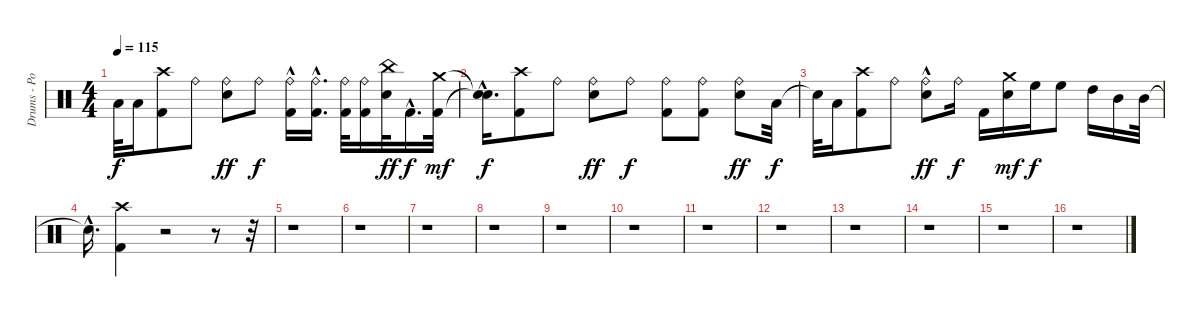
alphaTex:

\track ("Drums - Portnoy" "Drums - Po") {instrument percussion}
\staff {score}
\articulation defaults
\ts (4 4)
\tempo 115
\clef neutral
\ks c "Low Floor Tom (hit)".32{dy f} "Low Floor Tom (hit)".16
("Kick (hit) 2" "Crash high (hit)").8 "Ride (bell)".8 ("Ride (bell)" "Electric Snare (hit)").8{dy ff} "Ride (bell)".8{dy f} ("Kick (hit) 2"{hac} "Ride (bell)"{hac}).16 ("Kick (hit) 2"{hac} "Ride (bell)"{hac}).16{d} ("Kick (hit) 2" "Ride (bell)").32 ("Kick (hit) 2" "Ride (bell)").16 ("Electric Snare (hit)" "China (hit)").32{dy ff} "Kick (hit) 2"{hac}.16{d dy f} ("Kick (hit) 2" "Crash medium (hit)").32{dy mf} |
("Snare (hit)"{hac t} "Snare (hit)"{hac t}).16{d dy f} ("Kick (hit) 2" "Crash high (hit)").8 "Ride (bell)".8 ("Ride (bell)" "Electric Snare (hit)").8{dy ff} "Ride (bell)".8{dy f} ("Kick (hit) 2" "Ride (bell)").8 ("Kick (hit) 2" "Ride (bell)").8 ("Ride (bell)" "Electric Snare (hit)").8{dy ff} "Low Floor Tom (hit)".32{dy f} |
"Snare (hit)"{t}.32 "Low Floor Tom (hit)".16 ("Kick (hit) 2" "Crash high (hit)").8 "Ride (bell)".8 ("Ride (bell)" "Electric Snare (hit)"{hac}).8{dy ff} "Ride (bell)".16{dy f} "Kick (hit) 2".16 ("Electric Snare (hit)" "Crash medium (hit)").16{dy mf} "High Floor Tom (hit)".16{dy f} "High Floor Tom (hit)".8 "High Tom (hit)".16 "Mid Tom (hit)".16 "Mid Tom (hit)".32 |
"Snare (hit)"{hac t}.16{d} ("Crash high (hit)" "Kick (hit) 2").4 r.2 r.8 r.32 |
r.1 |
r.1 |
r.1 |
r.1 |
r.1 |
r.1 |
r.1 |
r.1 |
r.1 |
r.1 |
r.1 |
r.1
